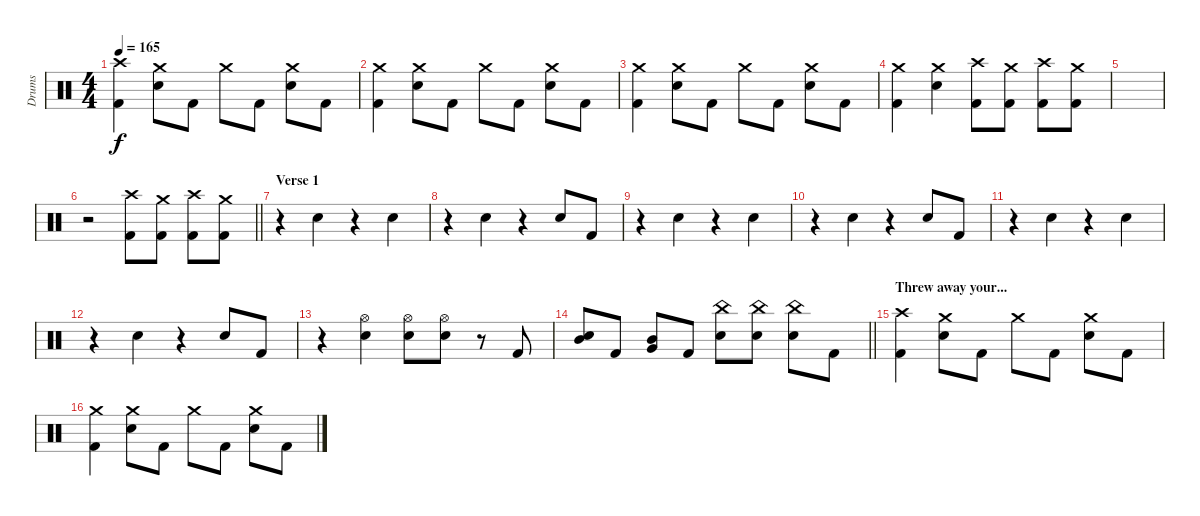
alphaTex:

\track ("Drums" "Drums") {instrument percussion}
\staff {score}
\articulation defaults
\ts (4 4)
\tempo 165
\clef neutral
\ks c
("Crash high (hit)" "Kick (hit) 2").4{dy f} ("Crash medium (hit)" "Electric Snare (hit)").8 "Kick (hit) 2".8 "Crash medium (hit)".8 "Kick (hit) 2".8 ("Crash medium (hit)" "Electric Snare (hit)").8 "Kick (hit) 2".8 |
("Crash medium (hit)" "Kick (hit) 2").4 ("Crash medium (hit)" "Electric Snare (hit)").8 "Kick (hit) 2".8 "Crash medium (hit)".8 "Kick (hit) 2".8 ("Crash medium (hit)" "Electric Snare (hit)").8 "Kick (hit) 2".8 |
("Crash medium (hit)" "Kick (hit) 2").4 ("Crash medium (hit)" "Electric Snare (hit)").8 "Kick (hit) 2".8 "Crash medium (hit)".8 "Kick (hit) 2".8 ("Crash medium (hit)" "Electric Snare (hit)").8 "Kick (hit) 2".8 |
("Crash medium (hit)" "Kick (hit) 2").4 ("Crash medium (hit)" "Electric Snare (hit)").4 ("Crash high (hit)" "Kick (hit) 2").8 ("Crash medium (hit)" "Kick (hit) 2").8 ("Crash high (hit)" "Kick (hit) 2").8 ("Crash medium (hit)" "Kick (hit) 2").8 |
|
\barLineRight lightlight
r.2 ("Crash high (hit)" "Kick (hit) 2").8 ("Crash medium (hit)" "Kick (hit) 2").8 ("Crash high (hit)" "Kick (hit) 2").8 ("Crash medium (hit)" "Kick (hit) 2").8 |
\section ("" "Verse 1")
r.4 "Electric Snare (hit)".4 r.4 "Electric Snare (hit)".4 |
r.4 "Electric Snare (hit)".4 r.4 "Electric Snare (hit)".8 "Kick (hit) 2".8 |
r.4 "Electric Snare (hit)".4 r.4 "Electric Snare (hit)".4 |
r.4 "Electric Snare (hit)".4 r.4 "Electric Snare (hit)".8 "Kick (hit) 2".8 |
r.4 "Electric Snare (hit)".4 r.4 "Electric Snare (hit)".4 |
r.4 "Electric Snare (hit)".4 r.4 "Electric Snare (hit)".8 "Kick (hit) 2".8 |
r.4 ("Hi-Hat (open)" "Electric Snare (hit)").4 ("Hi-Hat (open)" "Electric Snare (hit)").8 ("Hi-Hat (open)" "Electric Snare (hit)").8 r.8 "Kick (hit) 2".8 |
\barLineRight lightlight
("Mid Tom (hit)" "Electric Snare (hit)").8 "Kick (hit) 2".8 ("Mid Tom (hit)" "Very Low Tom (hit)").8{bd 120} "Kick (hit) 2".8 ("China (hit)" "Electric Snare (hit)").8 ("China (hit)" "Electric Snare (hit)").8 ("China (hit)" "Electric Snare (hit)").8 "Kick (hit) 2".8 |
\section ("" "Threw away your...")
("Crash high (hit)" "Kick (hit) 2").4 ("Crash medium (hit)" "Electric Snare (hit)").8 "Kick (hit) 2".8 "Crash medium (hit)".8 "Kick (hit) 2".8 ("Crash medium (hit)" "Electric Snare (hit)").8 "Kick (hit) 2".8 |
("Crash medium (hit)" "Kick (hit) 2").4 ("Crash medium (hit)" "Electric Snare (hit)").8 "Kick (hit) 2".8 "Crash medium (hit)".8 "Kick (hit) 2".8 ("Crash medium (hit)" "Electric Snare (hit)").8 "Kick (hit) 2".8
